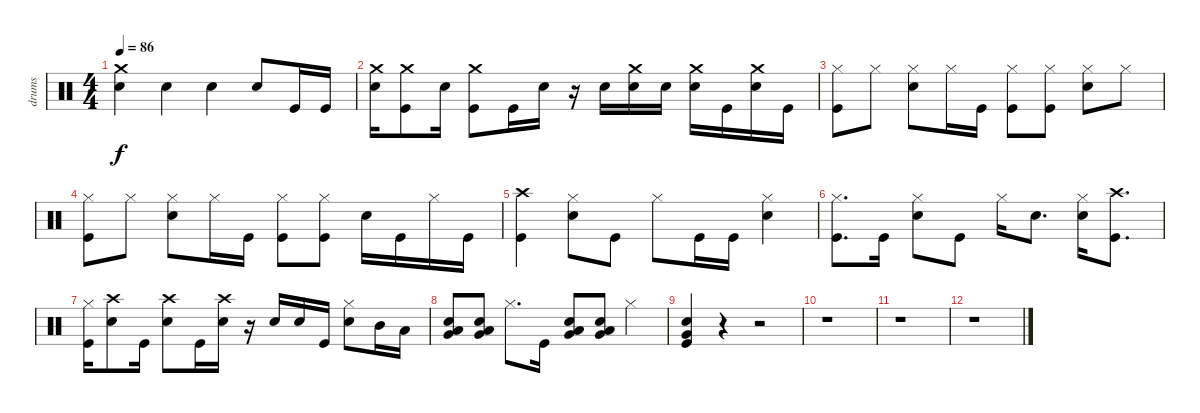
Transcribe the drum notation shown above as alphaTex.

\track ("drums" "drums") {instrument percussion}
\staff {score}
\articulation defaults
\ts (4 4)
\tempo 86
\clef neutral
\ks c
("Crash medium (hit)" "Snare (hit) 2").4{dy f} "Snare (hit) 2".4 "Snare (hit) 2".4 "Snare (hit) 2".8 "Kick (hit)".16 "Kick (hit)".16 |
("Crash medium (hit)" "Snare (hit) 2").16 ("Crash medium (hit)" "Kick (hit)").8 "Snare (hit) 2".16 ("Crash medium (hit)" "Kick (hit)").8 "Kick (hit)".16 "Snare (hit) 2".16 r.16 "Snare (hit) 2".16 ("Crash medium (hit)" "Snare (hit) 2").16 "Snare (hit) 2".16 ("Crash medium (hit)" "Snare (hit) 2").16 "Kick (hit)".16 ("Crash medium (hit)" "Snare (hit) 2").16 "Kick (hit)".16 |
("Hi-Hat (closed)" "Kick (hit)").8 "Hi-Hat (closed)".8 ("Snare (hit) 2" "Hi-Hat (closed)").8 "Hi-Hat (closed)".16 "Kick (hit)".16 ("Hi-Hat (closed)" "Kick (hit)").8 ("Hi-Hat (closed)" "Kick (hit)").8 ("Snare (hit) 2" "Hi-Hat (closed)").8 "Hi-Hat (closed)".8 |
("Hi-Hat (closed)" "Kick (hit)").8 "Hi-Hat (closed)".8 ("Snare (hit) 2" "Hi-Hat (closed)").8 "Hi-Hat (closed)".16 "Kick (hit)".16 ("Hi-Hat (closed)" "Kick (hit)").8 ("Hi-Hat (closed)" "Kick (hit)").8 "Snare (hit) 2".16 "Kick (hit)".16 "Hi-Hat (closed)".16 "Kick (hit)".16 |
("Crash high (hit)" "Kick (hit)").4 ("Snare (hit) 2" "Hi-Hat (closed)").8 "Kick (hit)".8 "Hi-Hat (closed)".8 "Kick (hit)".16 "Kick (hit)".16 ("Snare (hit) 2" "Hi-Hat (closed)").4 |
("Hi-Hat (closed)" "Kick (hit)").8{d} "Kick (hit)".16 ("Snare (hit) 2" "Hi-Hat (closed)").8 "Kick (hit)".8 "Hi-Hat (closed)".16 "Snare (hit) 2".8{d} ("Snare (hit) 2" "Hi-Hat (closed)").16 ("Crash high (hit)" "Kick (hit)").8{d} |
("Hi-Hat (closed)" "Kick (hit)").16 ("Crash high (hit)" "Snare (hit) 2").8 "Kick (hit)".16 ("Crash high (hit)" "Snare (hit) 2").8 "Kick (hit)".16 ("Crash high (hit)" "Snare (hit) 2").16 r.16 "Snare (hit) 2".16 "Snare (hit) 2".16 "Kick (hit)".16 ("Snare (hit) 2" "Hi-Hat (closed)").8 "Mid Tom (hit)".16 "Low Tom (hit)".16 |
("Low Tom (hit)" "Very Low Tom (hit)" "Snare (hit) 2").8 ("Low Tom (hit)" "Very Low Tom (hit)" "Snare (hit) 2").8 "Hi-Hat (closed)".8{d} "Kick (hit)".16 ("Low Tom (hit)" "Very Low Tom (hit)" "Snare (hit) 2").8 ("Low Tom (hit)" "Very Low Tom (hit)" "Snare (hit) 2").8 "Hi-Hat (closed)".4 |
("Very Low Tom (hit)" "Snare (hit) 2" "Kick (hit)").4 r.4 r.2 |
r.1 |
r.1 |
r.1
